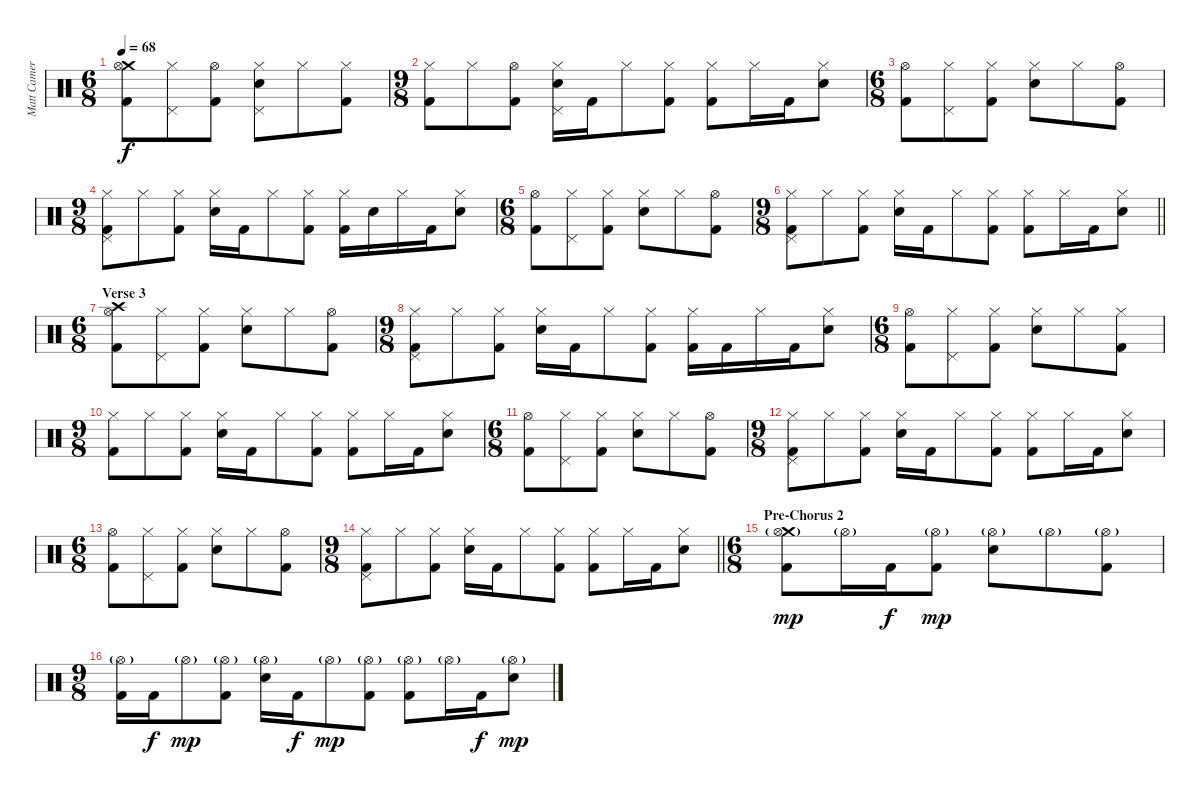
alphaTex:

\track ("Matt Cameron" "Matt Camer") {instrument percussion}
\staff {score}
\articulation defaults
\ts (6 8)
\tempo 68
\clef neutral
\ks c
("Crash medium (hit)" "Hi-Hat (open)" "Kick (hit) 2").8{dy f} ("Pedal Hi-Hat (hit)" "Hi-Hat (closed)").8 ("Hi-Hat (open)" "Kick (hit) 2").8 ("Pedal Hi-Hat (hit)" "Hi-Hat (closed)" "Electric Snare (hit)").8 "Hi-Hat (closed)".8 ("Hi-Hat (closed)" "Kick (hit) 2").8 |
\ts (9 8)
("Hi-Hat (closed)" "Kick (hit) 2").8 "Hi-Hat (closed)".8 ("Hi-Hat (open)" "Kick (hit) 2").8 ("Pedal Hi-Hat (hit)" "Hi-Hat (closed)" "Electric Snare (hit)").16 "Kick (hit) 2".16 "Hi-Hat (closed)".8 ("Hi-Hat (closed)" "Kick (hit) 2").8 ("Hi-Hat (closed)" "Kick (hit) 2").8 "Hi-Hat (closed)".16 "Kick (hit) 2".16 ("Hi-Hat (closed)" "Electric Snare (hit)").8 |
\ts (6 8)
("Hi-Hat (open)" "Kick (hit) 2").8 ("Pedal Hi-Hat (hit)" "Hi-Hat (closed)").8 ("Hi-Hat (closed)" "Kick (hit) 2").8 ("Hi-Hat (closed)" "Electric Snare (hit)").8 "Hi-Hat (closed)".8 ("Hi-Hat (open)" "Kick (hit) 2").8 |
\ts (9 8)
("Pedal Hi-Hat (hit)" "Hi-Hat (closed)" "Kick (hit) 2").8 "Hi-Hat (closed)".8 ("Hi-Hat (closed)" "Kick (hit) 2").8 ("Hi-Hat (closed)" "Electric Snare (hit)").16 "Kick (hit) 2".16 "Hi-Hat (closed)".8 ("Hi-Hat (closed)" "Kick (hit) 2").8 ("Hi-Hat (closed)" "Kick (hit) 2").16 "Electric Snare (hit)".16 "Hi-Hat (closed)".16 "Kick (hit) 2".16 ("Hi-Hat (closed)" "Electric Snare (hit)").8 |
\ts (6 8)
("Hi-Hat (open)" "Kick (hit) 2").8 ("Pedal Hi-Hat (hit)" "Hi-Hat (closed)").8 ("Hi-Hat (closed)" "Kick (hit) 2").8 ("Hi-Hat (closed)" "Electric Snare (hit)").8 "Hi-Hat (closed)".8 ("Hi-Hat (open)" "Kick (hit) 2").8 |
\ts (9 8)
\barLineRight lightlight
("Pedal Hi-Hat (hit)" "Hi-Hat (closed)" "Kick (hit) 2").8 "Hi-Hat (closed)".8 ("Hi-Hat (closed)" "Kick (hit) 2").8 ("Hi-Hat (closed)" "Electric Snare (hit)").16 "Kick (hit) 2".16 "Hi-Hat (closed)".8 ("Hi-Hat (closed)" "Kick (hit) 2").8 ("Hi-Hat (closed)" "Kick (hit) 2").8 "Hi-Hat (closed)".16 "Kick (hit) 2".16 ("Hi-Hat (closed)" "Electric Snare (hit)").8 |
\ts (6 8)
\section ("" "Verse 3")
("Crash high (hit)" "Hi-Hat (open)" "Kick (hit) 2").8 ("Pedal Hi-Hat (hit)" "Hi-Hat (closed)").8 ("Hi-Hat (closed)" "Kick (hit) 2").8 ("Hi-Hat (closed)" "Electric Snare (hit)").8 "Hi-Hat (closed)".8 ("Hi-Hat (open)" "Kick (hit) 2").8 |
\ts (9 8)
("Pedal Hi-Hat (hit)" "Hi-Hat (closed)" "Kick (hit) 2").8 "Hi-Hat (closed)".8 ("Hi-Hat (closed)" "Kick (hit) 2").8 ("Hi-Hat (closed)" "Electric Snare (hit)").16 "Kick (hit) 2".16 "Hi-Hat (closed)".8 ("Hi-Hat (closed)" "Kick (hit) 2").8 ("Hi-Hat (closed)" "Kick (hit) 2").16 "Kick (hit) 2".16 "Hi-Hat (closed)".16 "Kick (hit) 2".16 ("Hi-Hat (closed)" "Electric Snare (hit)").8 |
\ts (6 8)
("Hi-Hat (open)" "Kick (hit) 2").8 ("Pedal Hi-Hat (hit)" "Hi-Hat (closed)").8 ("Hi-Hat (closed)" "Kick (hit) 2").8 ("Hi-Hat (closed)" "Electric Snare (hit)").8 "Hi-Hat (closed)".8 ("Hi-Hat (closed)" "Kick (hit) 2").8 |
\ts (9 8)
("Hi-Hat (closed)" "Kick (hit) 2").8 "Hi-Hat (closed)".8 ("Hi-Hat (closed)" "Kick (hit) 2").8 ("Hi-Hat (closed)" "Electric Snare (hit)").16 "Kick (hit) 2".16 "Hi-Hat (closed)".8 ("Hi-Hat (closed)" "Kick (hit) 2").8 ("Hi-Hat (closed)" "Kick (hit) 2").8 "Hi-Hat (closed)".16 "Kick (hit) 2".16 ("Hi-Hat (closed)" "Electric Snare (hit)").8 |
\ts (6 8)
("Hi-Hat (open)" "Kick (hit) 2").8 ("Pedal Hi-Hat (hit)" "Hi-Hat (closed)").8 ("Hi-Hat (closed)" "Kick (hit) 2").8 ("Hi-Hat (closed)" "Electric Snare (hit)").8 "Hi-Hat (closed)".8 ("Hi-Hat (open)" "Kick (hit) 2").8 |
\ts (9 8)
("Pedal Hi-Hat (hit)" "Hi-Hat (closed)" "Kick (hit) 2").8 "Hi-Hat (closed)".8 ("Hi-Hat (closed)" "Kick (hit) 2").8 ("Hi-Hat (closed)" "Electric Snare (hit)").16 "Kick (hit) 2".16 "Hi-Hat (closed)".8 ("Hi-Hat (closed)" "Kick (hit) 2").8 ("Hi-Hat (closed)" "Kick (hit) 2").8 "Hi-Hat (closed)".16 "Kick (hit) 2".16 ("Hi-Hat (closed)" "Electric Snare (hit)").8 |
\ts (6 8)
("Hi-Hat (open)" "Kick (hit) 2").8 ("Pedal Hi-Hat (hit)" "Hi-Hat (closed)").8 ("Hi-Hat (closed)" "Kick (hit) 2").8 ("Hi-Hat (closed)" "Electric Snare (hit)").8 "Hi-Hat (closed)".8 ("Hi-Hat (open)" "Kick (hit) 2").8 |
\ts (9 8)
\barLineRight lightlight
("Pedal Hi-Hat (hit)" "Hi-Hat (closed)" "Kick (hit) 2").8 "Hi-Hat (closed)".8 ("Hi-Hat (closed)" "Kick (hit) 2").8 ("Hi-Hat (closed)" "Electric Snare (hit)").16 "Kick (hit) 2".16 "Hi-Hat (closed)".8 ("Hi-Hat (closed)" "Kick (hit) 2").8 ("Hi-Hat (closed)" "Kick (hit) 2").8 "Hi-Hat (closed)".16 "Kick (hit) 2".16 ("Hi-Hat (closed)" "Electric Snare (hit)").8 |
\ts (6 8)
\section ("" "Pre-Chorus 2")
("Crash medium (hit)" "Hi-Hat (open)"{g} "Kick (hit) 2").8{dy mp} "Hi-Hat (open)"{g}.16 "Kick (hit) 2".16{dy f} ("Hi-Hat (open)"{g} "Kick (hit) 2").8{dy mp} ("Hi-Hat (open)"{g} "Electric Snare (hit)").8 "Hi-Hat (open)"{g}.8 ("Hi-Hat (open)"{g} "Kick (hit) 2").8 |
\ts (9 8)
("Hi-Hat (open)"{g} "Kick (hit) 2").16 "Kick (hit) 2".16{dy f} "Hi-Hat (open)"{g}.8{dy mp} ("Hi-Hat (open)"{g} "Kick (hit) 2").8 ("Hi-Hat (open)"{g} "Electric Snare (hit)").16 "Kick (hit) 2".16{dy f} "Hi-Hat (open)"{g}.8{dy mp} ("Hi-Hat (open)"{g} "Kick (hit) 2").8 ("Hi-Hat (open)"{g} "Kick (hit) 2").8 "Hi-Hat (open)"{g}.16 "Kick (hit) 2".16{dy f} ("Hi-Hat (open)"{g} "Electric Snare (hit)").8{dy mp}
